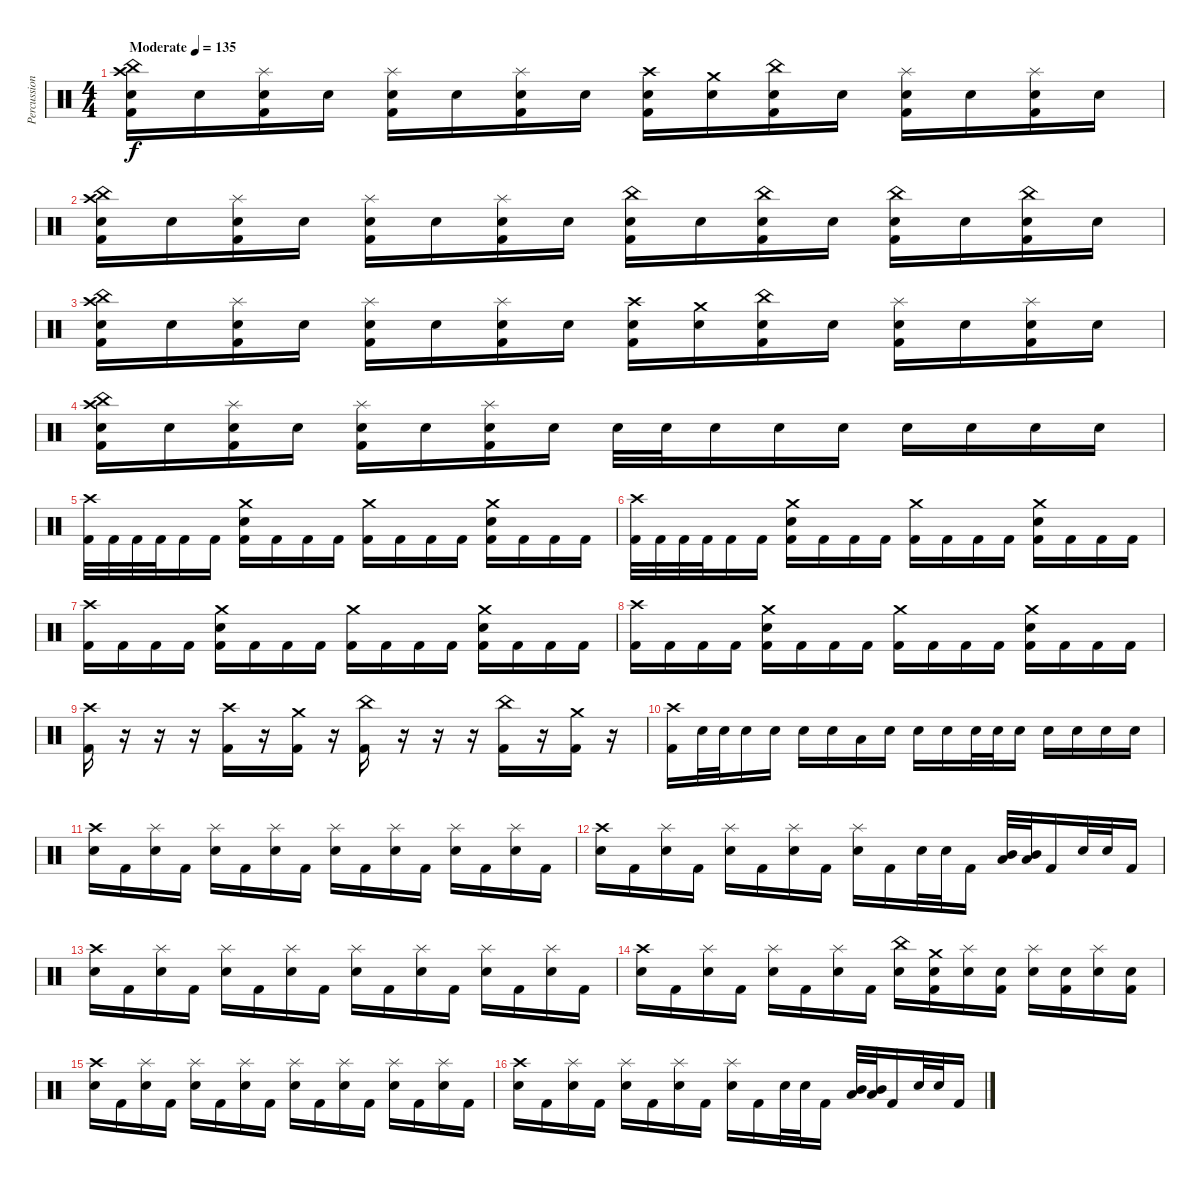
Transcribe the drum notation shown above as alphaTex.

\track ("Percussion" "Percussion") {instrument percussion}
\staff {score}
\articulation defaults
\ts (4 4)
\tempo (135 "Moderate")
\clef neutral
\ks c
("China (hit)" "Crash high (hit)" "Electric Snare (hit)" "Kick (hit) 2").16{dy f} "Electric Snare (hit)".16 ("Splash (hit)" "Electric Snare (hit)" "Kick (hit) 2").16 "Electric Snare (hit)".16 ("Splash (hit)" "Electric Snare (hit)" "Kick (hit) 2").16 "Electric Snare (hit)".16 ("Splash (hit)" "Electric Snare (hit)" "Kick (hit) 2").16 "Electric Snare (hit)".16 ("Crash high (hit)" "Electric Snare (hit)" "Kick (hit) 2").16 ("Crash medium (hit)" "Electric Snare (hit)").16 ("China (hit)" "Electric Snare (hit)" "Kick (hit) 2").16 "Electric Snare (hit)".16 ("Splash (hit)" "Electric Snare (hit)" "Kick (hit) 2").16 "Electric Snare (hit)".16 ("Splash (hit)" "Electric Snare (hit)" "Kick (hit) 2").16 "Electric Snare (hit)".16 |
("China (hit)" "Crash high (hit)" "Electric Snare (hit)" "Kick (hit) 2").16 "Electric Snare (hit)".16 ("Splash (hit)" "Electric Snare (hit)" "Kick (hit) 2").16 "Electric Snare (hit)".16 ("Splash (hit)" "Electric Snare (hit)" "Kick (hit) 2").16 "Electric Snare (hit)".16 ("Splash (hit)" "Electric Snare (hit)" "Kick (hit) 2").16 "Electric Snare (hit)".16 ("China (hit)" "Electric Snare (hit)" "Kick (hit) 2").16 "Electric Snare (hit)".16 ("China (hit)" "Electric Snare (hit)" "Kick (hit) 2").16 "Electric Snare (hit)".16 ("China (hit)" "Electric Snare (hit)" "Kick (hit) 2").16 "Electric Snare (hit)".16 ("China (hit)" "Electric Snare (hit)" "Kick (hit) 2").16 "Electric Snare (hit)".16 |
("China (hit)" "Crash high (hit)" "Electric Snare (hit)" "Kick (hit) 2").16 "Electric Snare (hit)".16 ("Splash (hit)" "Electric Snare (hit)" "Kick (hit) 2").16 "Electric Snare (hit)".16 ("Splash (hit)" "Electric Snare (hit)" "Kick (hit) 2").16 "Electric Snare (hit)".16 ("Splash (hit)" "Electric Snare (hit)" "Kick (hit) 2").16 "Electric Snare (hit)".16 ("Crash high (hit)" "Electric Snare (hit)" "Kick (hit) 2").16 ("Crash medium (hit)" "Electric Snare (hit)").16 ("China (hit)" "Electric Snare (hit)" "Kick (hit) 2").16 "Electric Snare (hit)".16 ("Splash (hit)" "Electric Snare (hit)" "Kick (hit) 2").16 "Electric Snare (hit)".16 ("Splash (hit)" "Electric Snare (hit)" "Kick (hit) 2").16 "Electric Snare (hit)".16 |
("China (hit)" "Crash high (hit)" "Electric Snare (hit)" "Kick (hit) 2").16 "Electric Snare (hit)".16 ("Splash (hit)" "Electric Snare (hit)" "Kick (hit) 2").16 "Electric Snare (hit)".16 ("Splash (hit)" "Electric Snare (hit)" "Kick (hit) 2").16 "Electric Snare (hit)".16 ("Splash (hit)" "Electric Snare (hit)" "Kick (hit) 2").16 "Electric Snare (hit)".16 "Electric Snare (hit)".32 "Electric Snare (hit)".32 "Electric Snare (hit)".16 "Electric Snare (hit)".16 "Electric Snare (hit)".16 "Electric Snare (hit)".16 "Electric Snare (hit)".16 "Electric Snare (hit)".16 "Electric Snare (hit)".16 |
("Crash high (hit)" "Kick (hit) 2").32 "Kick (hit) 2".32 "Kick (hit) 2".32 "Kick (hit) 2".32 "Kick (hit) 2".16 "Kick (hit) 2".16 ("Crash medium (hit)" "Electric Snare (hit)" "Kick (hit) 2").16 "Kick (hit) 2".16 "Kick (hit) 2".16 "Kick (hit) 2".16 ("Crash medium (hit)" "Kick (hit) 2").16 "Kick (hit) 2".16 "Kick (hit) 2".16 "Kick (hit) 2".16 ("Crash medium (hit)" "Electric Snare (hit)" "Kick (hit) 2").16 "Kick (hit) 2".16 "Kick (hit) 2".16 "Kick (hit) 2".16 |
("Crash high (hit)" "Kick (hit) 2").32 "Kick (hit) 2".32 "Kick (hit) 2".32 "Kick (hit) 2".32 "Kick (hit) 2".16 "Kick (hit) 2".16 ("Crash medium (hit)" "Electric Snare (hit)" "Kick (hit) 2").16 "Kick (hit) 2".16 "Kick (hit) 2".16 "Kick (hit) 2".16 ("Crash medium (hit)" "Kick (hit) 2").16 "Kick (hit) 2".16 "Kick (hit) 2".16 "Kick (hit) 2".16 ("Crash medium (hit)" "Electric Snare (hit)" "Kick (hit) 2").16 "Kick (hit) 2".16 "Kick (hit) 2".16 "Kick (hit) 2".16 |
("Crash high (hit)" "Kick (hit) 2").16 "Kick (hit) 2".16 "Kick (hit) 2".16 "Kick (hit) 2".16 ("Crash medium (hit)" "Electric Snare (hit)" "Kick (hit) 2").16 "Kick (hit) 2".16 "Kick (hit) 2".16 "Kick (hit) 2".16 ("Crash medium (hit)" "Kick (hit) 2").16 "Kick (hit) 2".16 "Kick (hit) 2".16 "Kick (hit) 2".16 ("Crash medium (hit)" "Electric Snare (hit)" "Kick (hit) 2").16 "Kick (hit) 2".16 "Kick (hit) 2".16 "Kick (hit) 2".16 |
("Crash high (hit)" "Kick (hit) 2").16 "Kick (hit) 2".16 "Kick (hit) 2".16 "Kick (hit) 2".16 ("Crash medium (hit)" "Electric Snare (hit)" "Kick (hit) 2").16 "Kick (hit) 2".16 "Kick (hit) 2".16 "Kick (hit) 2".16 ("Crash medium (hit)" "Kick (hit) 2").16 "Kick (hit) 2".16 "Kick (hit) 2".16 "Kick (hit) 2".16 ("Crash medium (hit)" "Electric Snare (hit)" "Kick (hit) 2").16 "Kick (hit) 2".16 "Kick (hit) 2".16 "Kick (hit) 2".16 |
("Crash high (hit)" "Kick (hit) 2").16 r.16 r.16 r.16 ("Crash high (hit)" "Kick (hit) 2").16 r.16 ("Crash medium (hit)" "Kick (hit) 2").16 r.16 ("China (hit)" "Kick (hit) 2").16 r.16 r.16 r.16 ("China (hit)" "Kick (hit) 2").16 r.16 ("Crash medium (hit)" "Kick (hit) 2").16 r.16 |
("Crash high (hit)" "Kick (hit) 2").16 "Electric Snare (hit)".32 "Electric Snare (hit)".32 "Electric Snare (hit)".16 "Electric Snare (hit)".16 "Electric Snare (hit)".16 "Electric Snare (hit)".16 "Low Tom (hit)".16 "Electric Snare (hit)".16 "Electric Snare (hit)".16 "Electric Snare (hit)".16 "Electric Snare (hit)".32 "Electric Snare (hit)".32 "Electric Snare (hit)".16 "Electric Snare (hit)".16 "Electric Snare (hit)".16 "Electric Snare (hit)".16 "Electric Snare (hit)".16 |
("Crash high (hit)" "Electric Snare (hit)").16 "Kick (hit) 2".16 ("Splash (hit)" "Electric Snare (hit)").16 "Kick (hit) 2".16 ("Splash (hit)" "Electric Snare (hit)").16 "Kick (hit) 2".16 ("Splash (hit)" "Electric Snare (hit)").16 "Kick (hit) 2".16 ("Splash (hit)" "Electric Snare (hit)").16 "Kick (hit) 2".16 ("Splash (hit)" "Electric Snare (hit)").16 "Kick (hit) 2".16 ("Splash (hit)" "Electric Snare (hit)").16 "Kick (hit) 2".16 ("Splash (hit)" "Electric Snare (hit)").16 "Kick (hit) 2".16 |
("Crash high (hit)" "Electric Snare (hit)").16 "Kick (hit) 2".16 ("Splash (hit)" "Electric Snare (hit)").16 "Kick (hit) 2".16 ("Splash (hit)" "Electric Snare (hit)").16 "Kick (hit) 2".16 ("Splash (hit)" "Electric Snare (hit)").16 "Kick (hit) 2".16 ("Splash (hit)" "Electric Snare (hit)").16 "Kick (hit) 2".16 "Electric Snare (hit)".32 "Electric Snare (hit)".32 "Kick (hit) 2".16 ("Mid Tom (hit)" "Low Tom (hit)").32 ("Mid Tom (hit)" "Low Tom (hit)").32 "Kick (hit) 2".16 "Electric Snare (hit)".32 "Electric Snare (hit)".32 "Kick (hit) 2".16 |
("Crash high (hit)" "Electric Snare (hit)").16 "Kick (hit) 2".16 ("Splash (hit)" "Electric Snare (hit)").16 "Kick (hit) 2".16 ("Splash (hit)" "Electric Snare (hit)").16 "Kick (hit) 2".16 ("Splash (hit)" "Electric Snare (hit)").16 "Kick (hit) 2".16 ("Splash (hit)" "Electric Snare (hit)").16 "Kick (hit) 2".16 ("Splash (hit)" "Electric Snare (hit)").16 "Kick (hit) 2".16 ("Splash (hit)" "Electric Snare (hit)").16 "Kick (hit) 2".16 ("Splash (hit)" "Electric Snare (hit)").16 "Kick (hit) 2".16 |
("Crash high (hit)" "Electric Snare (hit)").16 "Kick (hit) 2".16 ("Splash (hit)" "Electric Snare (hit)").16 "Kick (hit) 2".16 ("Splash (hit)" "Electric Snare (hit)").16 "Kick (hit) 2".16 ("Splash (hit)" "Electric Snare (hit)").16 "Kick (hit) 2".16 ("China (hit)" "Electric Snare (hit)").16 ("Crash medium (hit)" "Electric Snare (hit)" "Kick (hit) 2").16 ("Splash (hit)" "Electric Snare (hit)").16 ("Electric Snare (hit)" "Kick (hit) 2").16 ("Splash (hit)" "Electric Snare (hit)").16 ("Electric Snare (hit)" "Kick (hit) 2").16 ("Splash (hit)" "Electric Snare (hit)").16 ("Electric Snare (hit)" "Kick (hit) 2").16 |
("Crash high (hit)" "Electric Snare (hit)").16 "Kick (hit) 2".16 ("Splash (hit)" "Electric Snare (hit)").16 "Kick (hit) 2".16 ("Splash (hit)" "Electric Snare (hit)").16 "Kick (hit) 2".16 ("Splash (hit)" "Electric Snare (hit)").16 "Kick (hit) 2".16 ("Splash (hit)" "Electric Snare (hit)").16 "Kick (hit) 2".16 ("Splash (hit)" "Electric Snare (hit)").16 "Kick (hit) 2".16 ("Splash (hit)" "Electric Snare (hit)").16 "Kick (hit) 2".16 ("Splash (hit)" "Electric Snare (hit)").16 "Kick (hit) 2".16 |
("Crash high (hit)" "Electric Snare (hit)").16 "Kick (hit) 2".16 ("Splash (hit)" "Electric Snare (hit)").16 "Kick (hit) 2".16 ("Splash (hit)" "Electric Snare (hit)").16 "Kick (hit) 2".16 ("Splash (hit)" "Electric Snare (hit)").16 "Kick (hit) 2".16 ("Splash (hit)" "Electric Snare (hit)").16 "Kick (hit) 2".16 "Electric Snare (hit)".32 "Electric Snare (hit)".32 "Kick (hit) 2".16 ("Mid Tom (hit)" "Low Tom (hit)").32 ("Mid Tom (hit)" "Low Tom (hit)").32 "Kick (hit) 2".16 "Electric Snare (hit)".32 "Electric Snare (hit)".32 "Kick (hit) 2".16
